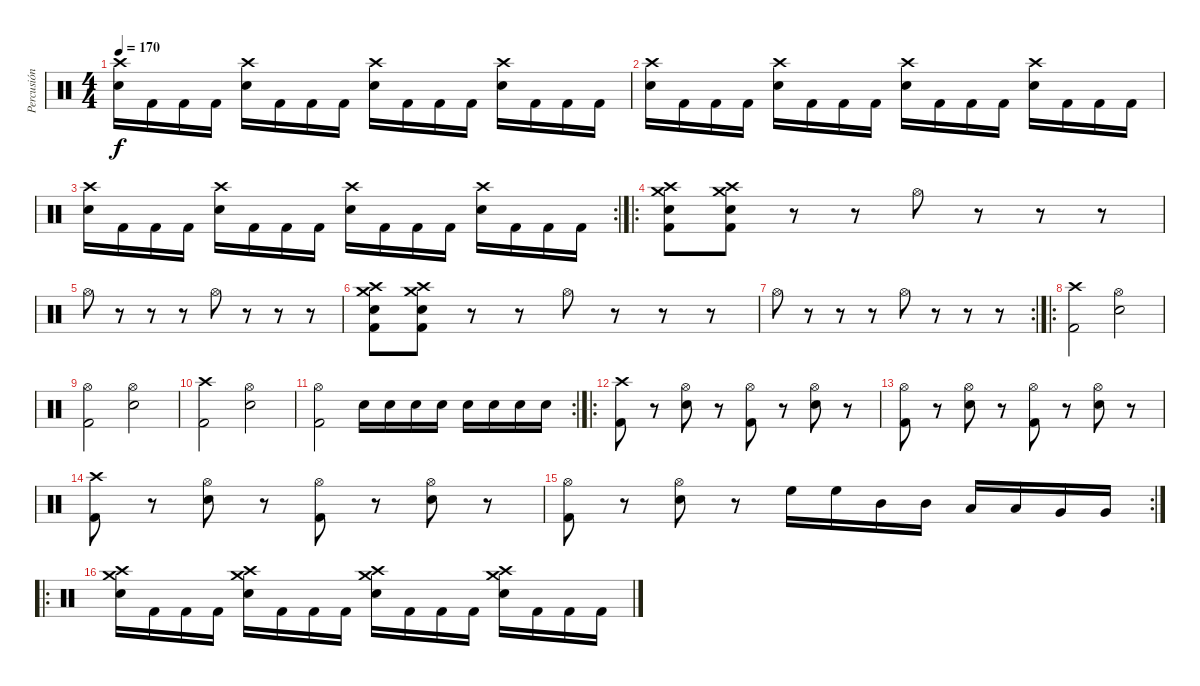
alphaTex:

\track ("Percusión" "Percusión") {instrument percussion}
\staff {score}
\articulation defaults
\ts (4 4)
\tempo 170
\clef neutral
\ks c
("Crash high (hit)" "Electric Snare (hit)").16{dy f} "Kick (hit) 2".16 "Kick (hit) 2".16 "Kick (hit) 2".16 ("Crash high (hit)" "Electric Snare (hit)").16 "Kick (hit) 2".16 "Kick (hit) 2".16 "Kick (hit) 2".16 ("Crash high (hit)" "Electric Snare (hit)").16 "Kick (hit) 2".16 "Kick (hit) 2".16 "Kick (hit) 2".16 ("Crash high (hit)" "Electric Snare (hit)").16 "Kick (hit) 2".16 "Kick (hit) 2".16 "Kick (hit) 2".16 |
("Crash high (hit)" "Electric Snare (hit)").16 "Kick (hit) 2".16 "Kick (hit) 2".16 "Kick (hit) 2".16 ("Crash high (hit)" "Electric Snare (hit)").16 "Kick (hit) 2".16 "Kick (hit) 2".16 "Kick (hit) 2".16 ("Crash high (hit)" "Electric Snare (hit)").16 "Kick (hit) 2".16 "Kick (hit) 2".16 "Kick (hit) 2".16 ("Crash high (hit)" "Electric Snare (hit)").16 "Kick (hit) 2".16 "Kick (hit) 2".16 "Kick (hit) 2".16 |
\rc 2
("Crash high (hit)" "Electric Snare (hit)").16 "Kick (hit) 2".16 "Kick (hit) 2".16 "Kick (hit) 2".16 ("Crash high (hit)" "Electric Snare (hit)").16 "Kick (hit) 2".16 "Kick (hit) 2".16 "Kick (hit) 2".16 ("Crash high (hit)" "Electric Snare (hit)").16 "Kick (hit) 2".16 "Kick (hit) 2".16 "Kick (hit) 2".16 ("Crash high (hit)" "Electric Snare (hit)").16 "Kick (hit) 2".16 "Kick (hit) 2".16 "Kick (hit) 2".16 |
\ro
("Crash medium (hit)" "Crash high (hit)" "Kick (hit) 2" "Electric Snare (hit)").8 ("Crash medium (hit)" "Crash high (hit)" "Kick (hit) 2" "Electric Snare (hit)").8 r.8 r.8 "Hi-Hat (open)".8 r.8 r.8 r.8 |
"Hi-Hat (open)".8 r.8 r.8 r.8 "Hi-Hat (open)".8 r.8 r.8 r.8 |
("Crash medium (hit)" "Crash high (hit)" "Kick (hit) 2" "Electric Snare (hit)").8 ("Crash medium (hit)" "Crash high (hit)" "Kick (hit) 2" "Electric Snare (hit)").8 r.8 r.8 "Hi-Hat (open)".8 r.8 r.8 r.8 |
\rc 2 "Hi-Hat (open)".8
r.8 r.8 r.8 "Hi-Hat (open)".8 r.8 r.8 r.8 |
\ro
("Crash high (hit)" "Kick (hit) 2").2 ("Hi-Hat (open)" "Electric Snare (hit)").2 |
("Hi-Hat (open)" "Kick (hit) 2").2 ("Hi-Hat (open)" "Electric Snare (hit)").2 |
("Crash high (hit)" "Kick (hit) 2").2 ("Hi-Hat (open)" "Electric Snare (hit)").2 |
\rc 2
("Hi-Hat (open)" "Kick (hit) 2").2 "Electric Snare (hit)".16 "Electric Snare (hit)".16 "Electric Snare (hit)".16 "Electric Snare (hit)".16 "Electric Snare (hit)".16 "Electric Snare (hit)".16 "Electric Snare (hit)".16 "Electric Snare (hit)".16 |
\ro
("Crash high (hit)" "Kick (hit) 2").8 r.8 ("Hi-Hat (open)" "Electric Snare (hit)").8 r.8 ("Hi-Hat (open)" "Kick (hit) 2").8 r.8 ("Hi-Hat (open)" "Electric Snare (hit)").8 r.8 |
("Hi-Hat (open)" "Kick (hit) 2").8 r.8 ("Hi-Hat (open)" "Electric Snare (hit)").8 r.8 ("Hi-Hat (open)" "Kick (hit) 2").8 r.8 ("Hi-Hat (open)" "Electric Snare (hit)").8 r.8 |
("Crash high (hit)" "Kick (hit) 2").8 r.8 ("Hi-Hat (open)" "Electric Snare (hit)").8 r.8 ("Hi-Hat (open)" "Kick (hit) 2").8 r.8 ("Hi-Hat (open)" "Electric Snare (hit)").8 r.8 |
\rc 2
("Hi-Hat (open)" "Kick (hit) 2").8 r.8 ("Hi-Hat (open)" "Electric Snare (hit)").8 r.8 "High Floor Tom (hit)".16 "High Floor Tom (hit)".16 "Mid Tom (hit)".16 "Mid Tom (hit)".16 "Low Tom (hit)".16 "Low Tom (hit)".16 "Very Low Tom (hit)".16 "Very Low Tom (hit)".16 |
\ro
("Crash medium (hit)" "Crash high (hit)" "Electric Snare (hit)").16 "Kick (hit) 2".16 "Kick (hit) 2".16 "Kick (hit) 2".16 ("Crash medium (hit)" "Crash high (hit)" "Electric Snare (hit)").16 "Kick (hit) 2".16 "Kick (hit) 2".16 "Kick (hit) 2".16 ("Crash medium (hit)" "Crash high (hit)" "Electric Snare (hit)").16 "Kick (hit) 2".16 "Kick (hit) 2".16 "Kick (hit) 2".16 ("Crash medium (hit)" "Crash high (hit)" "Electric Snare (hit)").16 "Kick (hit) 2".16 "Kick (hit) 2".16 "Kick (hit) 2".16
